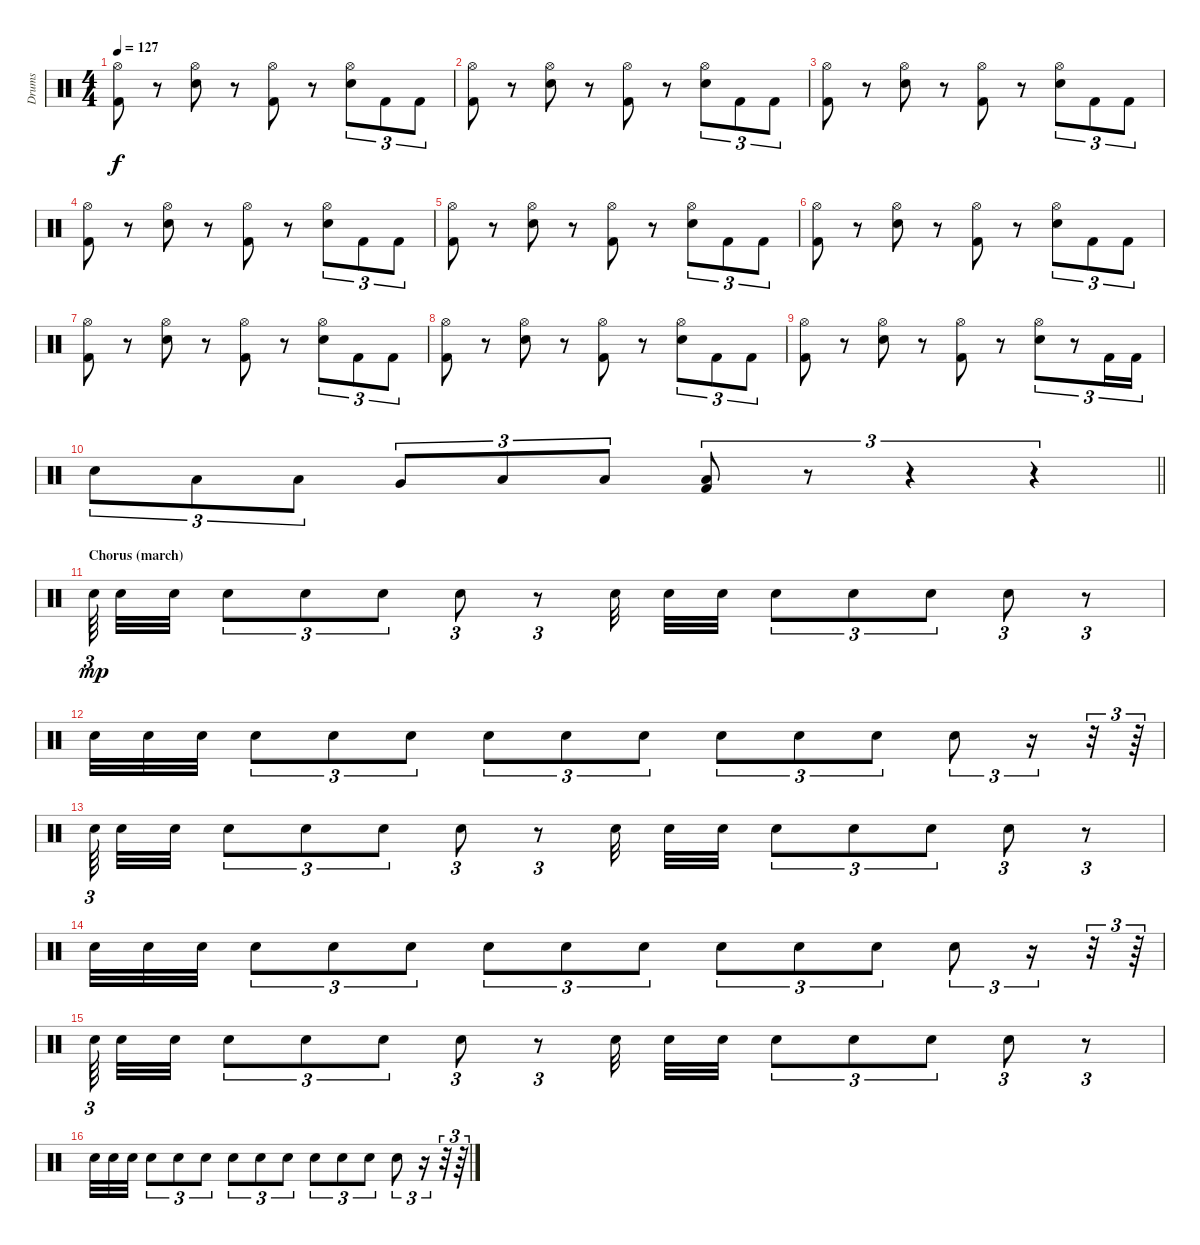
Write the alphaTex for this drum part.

\track ("Drums" "Drums") {instrument percussion}
\staff {score}
\articulation defaults
\ts (4 4)
\tempo 127
\clef neutral
\ks c
("Hi-Hat (open)" "Kick (hit) 2").8{dy f} r.8 ("Hi-Hat (open)" "Snare (hit) 2").8 r.8 ("Hi-Hat (open)" "Kick (hit) 2").8 r.8 ("Hi-Hat (open)" "Snare (hit) 2").8{tu (3 2)} "Kick (hit) 2".8{tu (3 2)} "Kick (hit) 2".8{tu (3 2)} |
("Hi-Hat (open)" "Kick (hit) 2").8 r.8 ("Hi-Hat (open)" "Snare (hit) 2").8 r.8 ("Hi-Hat (open)" "Kick (hit) 2").8 r.8 ("Hi-Hat (open)" "Snare (hit) 2").8{tu (3 2)} "Kick (hit) 2".8{tu (3 2)} "Kick (hit) 2".8{tu (3 2)} |
("Hi-Hat (open)" "Kick (hit) 2").8 r.8 ("Hi-Hat (open)" "Snare (hit) 2").8 r.8 ("Hi-Hat (open)" "Kick (hit) 2").8 r.8 ("Hi-Hat (open)" "Snare (hit) 2").8{tu (3 2)} "Kick (hit) 2".8{tu (3 2)} "Kick (hit) 2".8{tu (3 2)} |
("Hi-Hat (open)" "Kick (hit) 2").8 r.8 ("Hi-Hat (open)" "Snare (hit) 2").8 r.8 ("Hi-Hat (open)" "Kick (hit) 2").8 r.8 ("Hi-Hat (open)" "Snare (hit) 2").8{tu (3 2)} "Kick (hit) 2".8{tu (3 2)} "Kick (hit) 2".8{tu (3 2)} |
("Hi-Hat (open)" "Kick (hit) 2").8 r.8 ("Hi-Hat (open)" "Snare (hit) 2").8 r.8 ("Hi-Hat (open)" "Kick (hit) 2").8 r.8 ("Hi-Hat (open)" "Snare (hit) 2").8{tu (3 2)} "Kick (hit) 2".8{tu (3 2)} "Kick (hit) 2".8{tu (3 2)} |
("Hi-Hat (open)" "Kick (hit) 2").8 r.8 ("Hi-Hat (open)" "Snare (hit) 2").8 r.8 ("Hi-Hat (open)" "Kick (hit) 2").8 r.8 ("Hi-Hat (open)" "Snare (hit) 2").8{tu (3 2)} "Kick (hit) 2".8{tu (3 2)} "Kick (hit) 2".8{tu (3 2)} |
("Hi-Hat (open)" "Kick (hit) 2").8 r.8 ("Hi-Hat (open)" "Snare (hit) 2").8 r.8 ("Hi-Hat (open)" "Kick (hit) 2").8 r.8 ("Hi-Hat (open)" "Snare (hit) 2").8{tu (3 2)} "Kick (hit) 2".8{tu (3 2)} "Kick (hit) 2".8{tu (3 2)} |
("Hi-Hat (open)" "Kick (hit) 2").8 r.8 ("Hi-Hat (open)" "Snare (hit) 2").8 r.8 ("Hi-Hat (open)" "Kick (hit) 2").8 r.8 ("Hi-Hat (open)" "Snare (hit) 2").8{tu (3 2)} "Kick (hit) 2".8{tu (3 2)} "Kick (hit) 2".8{tu (3 2)} |
("Hi-Hat (open)" "Kick (hit) 2").8 r.8 ("Hi-Hat (open)" "Snare (hit) 2").8 r.8 ("Hi-Hat (open)" "Kick (hit) 2").8 r.8 ("Hi-Hat (open)" "Snare (hit) 2").8{tu (3 2)} r.8{tu (3 2)} "Kick (hit) 2".16{tu (3 2)} "Kick (hit) 2".16{tu (3 2)} |
\barLineRight lightlight "Snare (hit) 2".8{tu (3 2)} "Low Tom (hit)".8{tu (3 2)} "Low Tom (hit)".8{tu (3 2)} "Very Low Tom (hit)".8{tu (3 2)} "Low Floor Tom (hit)".8{tu (3 2)} "Low Floor Tom (hit)".8{tu (3 2)}
("Kick (hit) 2" "Low Floor Tom (hit)").8{tu (3 2)} r.8{tu (3 2)} r.4{tu (3 2)} r.4{tu (3 2)} |
\section ("" "Chorus (march)")
"Snare (hit) 2".64{tu (3 2) dy mp beam splitsecondary} "Snare (hit) 2".32 "Snare (hit) 2".32 "Snare (hit) 2".8{tu (3 2)} "Snare (hit) 2".8{tu (3 2)} "Snare (hit) 2".8{tu (3 2)} "Snare (hit) 2".8{tu (3 2)} r.8{tu (3 2)} "Snare (hit) 2".32 "Snare (hit) 2".32 "Snare (hit) 2".32 "Snare (hit) 2".8{tu (3 2)} "Snare (hit) 2".8{tu (3 2)} "Snare (hit) 2".8{tu (3 2)} "Snare (hit) 2".8{tu (3 2)} r.8{tu (3 2)} |
"Snare (hit) 2".32 "Snare (hit) 2".32 "Snare (hit) 2".32 "Snare (hit) 2".8{tu (3 2)} "Snare (hit) 2".8{tu (3 2)} "Snare (hit) 2".8{tu (3 2)} "Snare (hit) 2".8{tu (3 2)} "Snare (hit) 2".8{tu (3 2)} "Snare (hit) 2".8{tu (3 2)} "Snare (hit) 2".8{tu (3 2)} "Snare (hit) 2".8{tu (3 2)} "Snare (hit) 2".8{tu (3 2)} "Snare (hit) 2".8{tu (3 2)} r.16{tu (3 2)} r.32{tu (3 2)} r.64{tu (3 2)} |
"Snare (hit) 2".64{tu (3 2) beam splitsecondary} "Snare (hit) 2".32 "Snare (hit) 2".32 "Snare (hit) 2".8{tu (3 2)} "Snare (hit) 2".8{tu (3 2)} "Snare (hit) 2".8{tu (3 2)} "Snare (hit) 2".8{tu (3 2)} r.8{tu (3 2)} "Snare (hit) 2".32 "Snare (hit) 2".32 "Snare (hit) 2".32 "Snare (hit) 2".8{tu (3 2)} "Snare (hit) 2".8{tu (3 2)} "Snare (hit) 2".8{tu (3 2)} "Snare (hit) 2".8{tu (3 2)} r.8{tu (3 2)} |
"Snare (hit) 2".32 "Snare (hit) 2".32 "Snare (hit) 2".32 "Snare (hit) 2".8{tu (3 2)} "Snare (hit) 2".8{tu (3 2)} "Snare (hit) 2".8{tu (3 2)} "Snare (hit) 2".8{tu (3 2)} "Snare (hit) 2".8{tu (3 2)} "Snare (hit) 2".8{tu (3 2)} "Snare (hit) 2".8{tu (3 2)} "Snare (hit) 2".8{tu (3 2)} "Snare (hit) 2".8{tu (3 2)} "Snare (hit) 2".8{tu (3 2)} r.16{tu (3 2)} r.32{tu (3 2)} r.64{tu (3 2)} |
"Snare (hit) 2".64{tu (3 2) beam splitsecondary} "Snare (hit) 2".32 "Snare (hit) 2".32 "Snare (hit) 2".8{tu (3 2)} "Snare (hit) 2".8{tu (3 2)} "Snare (hit) 2".8{tu (3 2)} "Snare (hit) 2".8{tu (3 2)} r.8{tu (3 2)} "Snare (hit) 2".32 "Snare (hit) 2".32 "Snare (hit) 2".32 "Snare (hit) 2".8{tu (3 2)} "Snare (hit) 2".8{tu (3 2)} "Snare (hit) 2".8{tu (3 2)} "Snare (hit) 2".8{tu (3 2)} r.8{tu (3 2)} |
"Snare (hit) 2".32 "Snare (hit) 2".32 "Snare (hit) 2".32 "Snare (hit) 2".8{tu (3 2)} "Snare (hit) 2".8{tu (3 2)} "Snare (hit) 2".8{tu (3 2)} "Snare (hit) 2".8{tu (3 2)} "Snare (hit) 2".8{tu (3 2)} "Snare (hit) 2".8{tu (3 2)} "Snare (hit) 2".8{tu (3 2)} "Snare (hit) 2".8{tu (3 2)} "Snare (hit) 2".8{tu (3 2)} "Snare (hit) 2".8{tu (3 2)} r.16{tu (3 2)} r.32{tu (3 2)} r.64{tu (3 2)}
